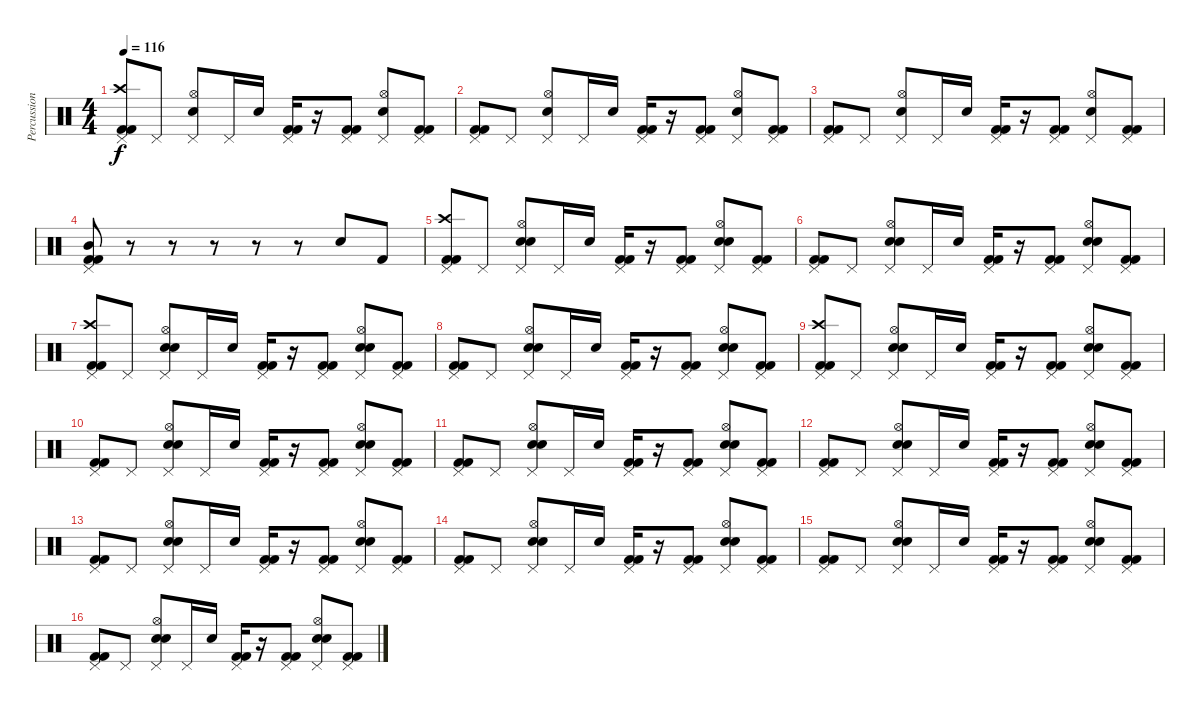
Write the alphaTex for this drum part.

\track ("Percussion" "Percussion") {instrument percussion}
\staff {score}
\articulation defaults
\ts (4 4)
\tempo 116
\clef neutral
\ks c
("Pedal Hi-Hat (hit)" "Crash high (hit)" "Kick (hit) 2" "Kick (hit) 2").8{dy f} "Pedal Hi-Hat (hit)".8 ("Pedal Hi-Hat (hit)" "Hi-Hat (open)" "Snare (hit) 2").8 "Pedal Hi-Hat (hit)".16 "Snare (hit) 2".16 ("Pedal Hi-Hat (hit)" "Kick (hit) 2" "Kick (hit) 2").16 r.16 ("Pedal Hi-Hat (hit)" "Kick (hit) 2" "Kick (hit) 2").8 ("Pedal Hi-Hat (hit)" "Hi-Hat (open)" "Snare (hit) 2").8 ("Pedal Hi-Hat (hit)" "Kick (hit) 2" "Kick (hit) 2").8 |
("Pedal Hi-Hat (hit)" "Kick (hit) 2" "Kick (hit) 2").8 "Pedal Hi-Hat (hit)".8 ("Pedal Hi-Hat (hit)" "Hi-Hat (open)" "Snare (hit) 2").8 "Pedal Hi-Hat (hit)".16 "Snare (hit) 2".16 ("Pedal Hi-Hat (hit)" "Kick (hit) 2" "Kick (hit) 2").16 r.16 ("Pedal Hi-Hat (hit)" "Kick (hit) 2" "Kick (hit) 2").8 ("Pedal Hi-Hat (hit)" "Hi-Hat (open)" "Snare (hit) 2").8 ("Pedal Hi-Hat (hit)" "Kick (hit) 2" "Kick (hit) 2").8 |
("Pedal Hi-Hat (hit)" "Kick (hit) 2" "Kick (hit) 2").8 "Pedal Hi-Hat (hit)".8 ("Pedal Hi-Hat (hit)" "Hi-Hat (open)" "Snare (hit) 2").8 "Pedal Hi-Hat (hit)".16 "Snare (hit) 2".16 ("Pedal Hi-Hat (hit)" "Kick (hit) 2" "Kick (hit) 2").16 r.16 ("Pedal Hi-Hat (hit)" "Kick (hit) 2" "Kick (hit) 2").8 ("Pedal Hi-Hat (hit)" "Hi-Hat (open)" "Snare (hit) 2").8 ("Pedal Hi-Hat (hit)" "Kick (hit) 2" "Kick (hit) 2").8 |
("Pedal Hi-Hat (hit)" "Mid Tom (hit)" "Kick (hit) 2" "Kick (hit) 2").8 r.8 r.8 r.8 r.8 r.8 "Snare (hit) 2".8 "Kick (hit) 2".8 |
("Pedal Hi-Hat (hit)" "Crash high (hit)" "Kick (hit) 2" "Kick (hit) 2").8 "Pedal Hi-Hat (hit)".8 ("Pedal Hi-Hat (hit)" "Hi-Hat (open)" "Snare (hit) 2" "Hand Clap (hit)").8 "Pedal Hi-Hat (hit)".16 "Snare (hit) 2".16 ("Pedal Hi-Hat (hit)" "Kick (hit) 2" "Kick (hit) 2").16 r.16 ("Pedal Hi-Hat (hit)" "Kick (hit) 2" "Kick (hit) 2").8 ("Pedal Hi-Hat (hit)" "Hi-Hat (open)" "Snare (hit) 2" "Hand Clap (hit)").8 ("Pedal Hi-Hat (hit)" "Kick (hit) 2" "Kick (hit) 2").8 |
("Pedal Hi-Hat (hit)" "Kick (hit) 2" "Kick (hit) 2").8 "Pedal Hi-Hat (hit)".8 ("Pedal Hi-Hat (hit)" "Hi-Hat (open)" "Snare (hit) 2" "Hand Clap (hit)").8 "Pedal Hi-Hat (hit)".16 "Snare (hit) 2".16 ("Pedal Hi-Hat (hit)" "Kick (hit) 2" "Kick (hit) 2").16 r.16 ("Pedal Hi-Hat (hit)" "Kick (hit) 2" "Kick (hit) 2").8 ("Pedal Hi-Hat (hit)" "Hi-Hat (open)" "Snare (hit) 2" "Hand Clap (hit)").8 ("Pedal Hi-Hat (hit)" "Kick (hit) 2" "Kick (hit) 2").8 |
("Pedal Hi-Hat (hit)" "Crash high (hit)" "Kick (hit) 2" "Kick (hit) 2").8 "Pedal Hi-Hat (hit)".8 ("Pedal Hi-Hat (hit)" "Hi-Hat (open)" "Snare (hit) 2" "Hand Clap (hit)").8 "Pedal Hi-Hat (hit)".16 "Snare (hit) 2".16 ("Pedal Hi-Hat (hit)" "Kick (hit) 2" "Kick (hit) 2").16 r.16 ("Pedal Hi-Hat (hit)" "Kick (hit) 2" "Kick (hit) 2").8 ("Pedal Hi-Hat (hit)" "Hi-Hat (open)" "Snare (hit) 2" "Hand Clap (hit)").8 ("Pedal Hi-Hat (hit)" "Kick (hit) 2" "Kick (hit) 2").8 |
("Pedal Hi-Hat (hit)" "Kick (hit) 2" "Kick (hit) 2").8 "Pedal Hi-Hat (hit)".8 ("Pedal Hi-Hat (hit)" "Hi-Hat (open)" "Snare (hit) 2" "Hand Clap (hit)").8 "Pedal Hi-Hat (hit)".16 "Snare (hit) 2".16 ("Pedal Hi-Hat (hit)" "Kick (hit) 2" "Kick (hit) 2").16 r.16 ("Pedal Hi-Hat (hit)" "Kick (hit) 2" "Kick (hit) 2").8 ("Pedal Hi-Hat (hit)" "Hi-Hat (open)" "Snare (hit) 2" "Hand Clap (hit)").8 ("Pedal Hi-Hat (hit)" "Kick (hit) 2" "Kick (hit) 2").8 |
("Pedal Hi-Hat (hit)" "Crash high (hit)" "Kick (hit) 2" "Kick (hit) 2").8 "Pedal Hi-Hat (hit)".8 ("Pedal Hi-Hat (hit)" "Hi-Hat (open)" "Snare (hit) 2" "Hand Clap (hit)").8 "Pedal Hi-Hat (hit)".16 "Snare (hit) 2".16 ("Pedal Hi-Hat (hit)" "Kick (hit) 2" "Kick (hit) 2").16 r.16 ("Pedal Hi-Hat (hit)" "Kick (hit) 2" "Kick (hit) 2").8 ("Pedal Hi-Hat (hit)" "Hi-Hat (open)" "Snare (hit) 2" "Hand Clap (hit)").8 ("Pedal Hi-Hat (hit)" "Kick (hit) 2" "Kick (hit) 2").8 |
("Pedal Hi-Hat (hit)" "Kick (hit) 2" "Kick (hit) 2").8 "Pedal Hi-Hat (hit)".8 ("Pedal Hi-Hat (hit)" "Hi-Hat (open)" "Snare (hit) 2" "Hand Clap (hit)").8 "Pedal Hi-Hat (hit)".16 "Snare (hit) 2".16 ("Pedal Hi-Hat (hit)" "Kick (hit) 2" "Kick (hit) 2").16 r.16 ("Pedal Hi-Hat (hit)" "Kick (hit) 2" "Kick (hit) 2").8 ("Pedal Hi-Hat (hit)" "Hi-Hat (open)" "Snare (hit) 2" "Hand Clap (hit)").8 ("Pedal Hi-Hat (hit)" "Kick (hit) 2" "Kick (hit) 2").8 |
("Pedal Hi-Hat (hit)" "Kick (hit) 2" "Kick (hit) 2").8 "Pedal Hi-Hat (hit)".8 ("Pedal Hi-Hat (hit)" "Hi-Hat (open)" "Snare (hit) 2" "Hand Clap (hit)").8 "Pedal Hi-Hat (hit)".16 "Snare (hit) 2".16 ("Pedal Hi-Hat (hit)" "Kick (hit) 2" "Kick (hit) 2").16 r.16 ("Pedal Hi-Hat (hit)" "Kick (hit) 2" "Kick (hit) 2").8 ("Pedal Hi-Hat (hit)" "Hi-Hat (open)" "Snare (hit) 2" "Hand Clap (hit)").8 ("Pedal Hi-Hat (hit)" "Kick (hit) 2" "Kick (hit) 2").8 |
("Pedal Hi-Hat (hit)" "Kick (hit) 2" "Kick (hit) 2").8 "Pedal Hi-Hat (hit)".8 ("Pedal Hi-Hat (hit)" "Hi-Hat (open)" "Snare (hit) 2" "Hand Clap (hit)").8 "Pedal Hi-Hat (hit)".16 "Snare (hit) 2".16 ("Pedal Hi-Hat (hit)" "Kick (hit) 2" "Kick (hit) 2").16 r.16 ("Pedal Hi-Hat (hit)" "Kick (hit) 2" "Kick (hit) 2").8 ("Pedal Hi-Hat (hit)" "Hi-Hat (open)" "Snare (hit) 2" "Hand Clap (hit)").8 ("Pedal Hi-Hat (hit)" "Kick (hit) 2" "Kick (hit) 2").8 |
("Pedal Hi-Hat (hit)" "Kick (hit) 2" "Kick (hit) 2").8 "Pedal Hi-Hat (hit)".8 ("Pedal Hi-Hat (hit)" "Hi-Hat (open)" "Snare (hit) 2" "Hand Clap (hit)").8 "Pedal Hi-Hat (hit)".16 "Snare (hit) 2".16 ("Pedal Hi-Hat (hit)" "Kick (hit) 2" "Kick (hit) 2").16 r.16 ("Pedal Hi-Hat (hit)" "Kick (hit) 2" "Kick (hit) 2").8 ("Pedal Hi-Hat (hit)" "Hi-Hat (open)" "Snare (hit) 2" "Hand Clap (hit)").8 ("Pedal Hi-Hat (hit)" "Kick (hit) 2" "Kick (hit) 2").8 |
("Pedal Hi-Hat (hit)" "Kick (hit) 2" "Kick (hit) 2").8 "Pedal Hi-Hat (hit)".8 ("Pedal Hi-Hat (hit)" "Hi-Hat (open)" "Snare (hit) 2" "Hand Clap (hit)").8 "Pedal Hi-Hat (hit)".16 "Snare (hit) 2".16 ("Pedal Hi-Hat (hit)" "Kick (hit) 2" "Kick (hit) 2").16 r.16 ("Pedal Hi-Hat (hit)" "Kick (hit) 2" "Kick (hit) 2").8 ("Pedal Hi-Hat (hit)" "Hi-Hat (open)" "Snare (hit) 2" "Hand Clap (hit)").8 ("Pedal Hi-Hat (hit)" "Kick (hit) 2" "Kick (hit) 2").8 |
("Pedal Hi-Hat (hit)" "Kick (hit) 2" "Kick (hit) 2").8 "Pedal Hi-Hat (hit)".8 ("Pedal Hi-Hat (hit)" "Hi-Hat (open)" "Snare (hit) 2" "Hand Clap (hit)").8 "Pedal Hi-Hat (hit)".16 "Snare (hit) 2".16 ("Pedal Hi-Hat (hit)" "Kick (hit) 2" "Kick (hit) 2").16 r.16 ("Pedal Hi-Hat (hit)" "Kick (hit) 2" "Kick (hit) 2").8 ("Pedal Hi-Hat (hit)" "Hi-Hat (open)" "Snare (hit) 2" "Hand Clap (hit)").8 ("Pedal Hi-Hat (hit)" "Kick (hit) 2" "Kick (hit) 2").8 |
("Pedal Hi-Hat (hit)" "Kick (hit) 2" "Kick (hit) 2").8 "Pedal Hi-Hat (hit)".8 ("Pedal Hi-Hat (hit)" "Hi-Hat (open)" "Snare (hit) 2" "Hand Clap (hit)").8 "Pedal Hi-Hat (hit)".16 "Snare (hit) 2".16 ("Pedal Hi-Hat (hit)" "Kick (hit) 2" "Kick (hit) 2").16 r.16 ("Pedal Hi-Hat (hit)" "Kick (hit) 2" "Kick (hit) 2").8 ("Pedal Hi-Hat (hit)" "Hi-Hat (open)" "Snare (hit) 2" "Hand Clap (hit)").8 ("Pedal Hi-Hat (hit)" "Kick (hit) 2" "Kick (hit) 2").8
